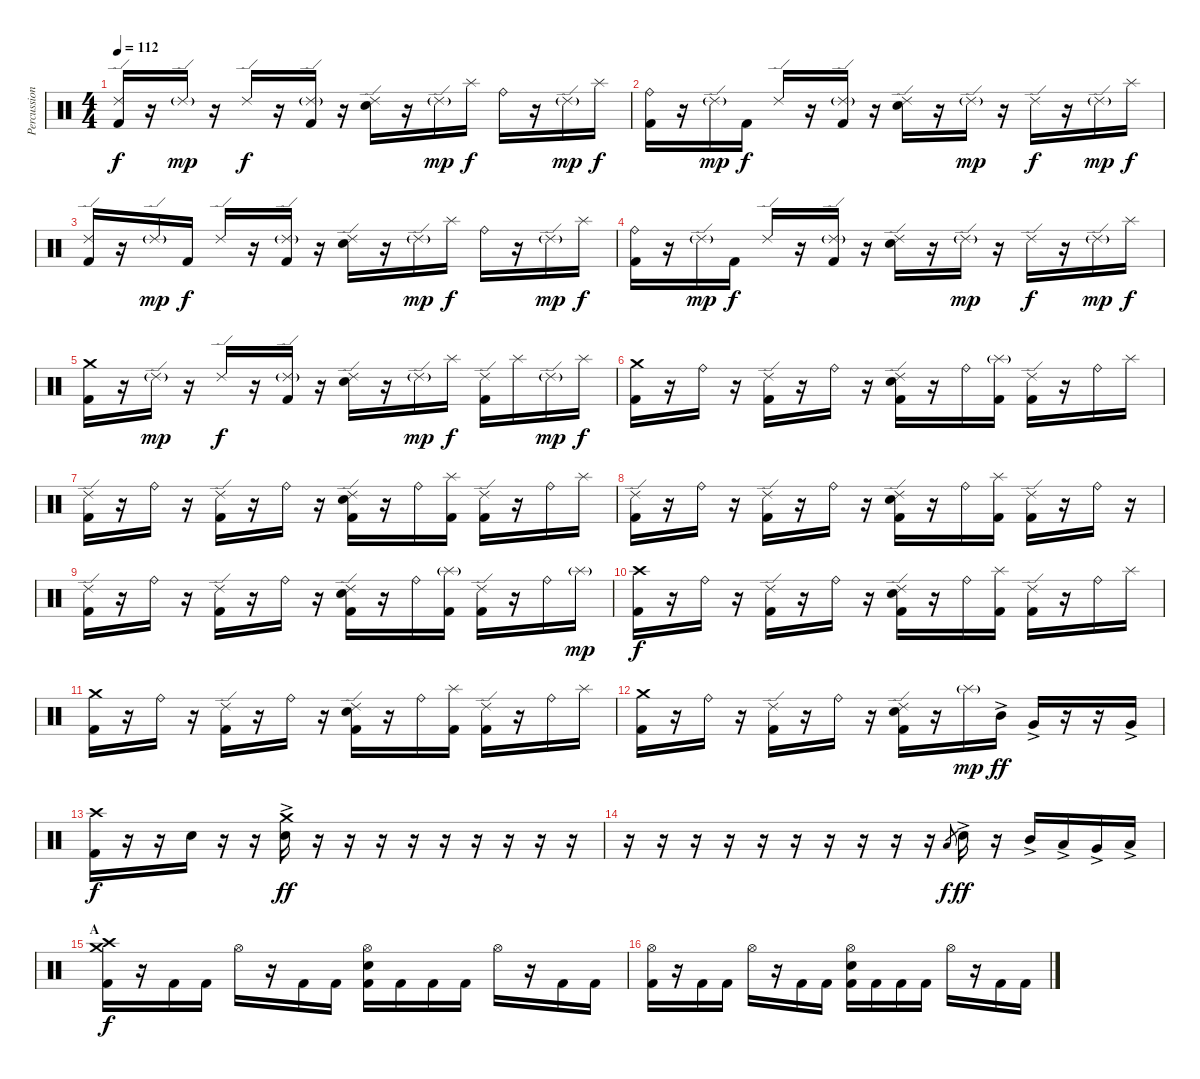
\track ("Percussion" "Percussion") {instrument percussion}
\staff {score}
\articulation defaults
\ts (4 4)
\tempo 112
\clef neutral
\ks c
("Ride (edge) 2" "Kick (hit) 2").16{dy f} r.16 "Ride (edge) 2"{g}.16{dy mp} r.16 "Ride (edge) 2".16{dy f} r.16 ("Ride (edge) 2"{g} "Kick (hit) 2").16 r.16 ("Ride (edge) 2" "Electric Snare (hit)").16 r.16 "Ride (edge) 2"{g}.16{dy mp} "Splash (hit)".16{dy f} "Ride (bell)".16 r.16 "Ride (edge) 2"{g}.16{dy mp} "Splash (hit)".16{dy f} |
("Ride (bell)" "Kick (hit) 2").16 r.16 "Ride (edge) 2"{g}.16{dy mp} "Kick (hit) 2".16{dy f} "Ride (edge) 2".16 r.16 ("Ride (edge) 2"{g} "Kick (hit) 2").16 r.16 ("Ride (edge) 2" "Electric Snare (hit)").16 r.16 "Ride (edge) 2"{g}.16{dy mp} r.16 "Ride (edge) 2".16{dy f} r.16 "Ride (edge) 2"{g}.16{dy mp} "Splash (hit)".16{dy f} |
("Ride (edge) 2" "Kick (hit) 2").16 r.16 "Ride (edge) 2"{g}.16{dy mp} "Kick (hit) 2".16{dy f} "Ride (edge) 2".16 r.16 ("Ride (edge) 2"{g} "Kick (hit) 2").16 r.16 ("Ride (edge) 2" "Electric Snare (hit)").16 r.16 "Ride (edge) 2"{g}.16{dy mp} "Splash (hit)".16{dy f} "Ride (bell)".16 r.16 "Ride (edge) 2"{g}.16{dy mp} "Splash (hit)".16{dy f} |
("Ride (bell)" "Kick (hit) 2").16 r.16 "Ride (edge) 2"{g}.16{dy mp} "Kick (hit) 2".16{dy f} "Ride (edge) 2".16 r.16 ("Ride (edge) 2"{g} "Kick (hit) 2").16 r.16 ("Ride (edge) 2" "Electric Snare (hit)").16 r.16 "Ride (edge) 2"{g}.16{dy mp} r.16 "Ride (edge) 2".16{dy f} r.16 "Ride (edge) 2"{g}.16{dy mp} "Splash (hit)".16{dy f} |
("Crash medium (hit)" "Kick (hit) 2").16 r.16 "Ride (edge) 2"{g}.16{dy mp} r.16 "Ride (edge) 2".16{dy f} r.16 ("Ride (edge) 2"{g} "Kick (hit) 2").16 r.16 ("Ride (edge) 2" "Electric Snare (hit)").16 r.16 "Ride (edge) 2"{g}.16{dy mp} "Splash (hit)".16{dy f} ("Ride (edge) 2" "Kick (hit) 2").16 "Splash (hit)".16 "Ride (edge) 2"{g}.16{dy mp} "Splash (hit)".16{dy f} |
("Crash medium (hit)" "Kick (hit) 2").16 r.16 "Ride (bell)".16 r.16 ("Ride (edge) 2" "Kick (hit) 2").16 r.16 "Ride (bell)".16 r.16 ("Ride (edge) 2" "Electric Snare (hit)" "Kick (hit) 2").16 r.16 "Ride (bell)".16 ("Splash (hit)"{g} "Kick (hit) 2").16 ("Ride (edge) 2" "Kick (hit) 2").16 r.16 "Ride (bell)".16 "Splash (hit)".16 |
("Ride (edge) 2" "Kick (hit) 2").16 r.16 "Ride (bell)".16 r.16 ("Ride (edge) 2" "Kick (hit) 2").16 r.16 "Ride (bell)".16 r.16 ("Ride (edge) 2" "Electric Snare (hit)" "Kick (hit) 2").16 r.16 "Ride (bell)".16 ("Splash (hit)" "Kick (hit) 2").16 ("Ride (edge) 2" "Kick (hit) 2").16 r.16 "Ride (bell)".16 "Splash (hit)".16 |
("Ride (edge) 2" "Kick (hit) 2").16 r.16 "Ride (bell)".16 r.16 ("Ride (edge) 2" "Kick (hit) 2").16 r.16 "Ride (bell)".16 r.16 ("Ride (edge) 2" "Electric Snare (hit)" "Kick (hit) 2").16 r.16 "Ride (bell)".16 ("Splash (hit)" "Kick (hit) 2").16 ("Ride (edge) 2" "Kick (hit) 2").16 r.16 "Ride (bell)".16 r.16 |
("Ride (edge) 2" "Kick (hit) 2").16 r.16 "Ride (bell)".16 r.16 ("Ride (edge) 2" "Kick (hit) 2").16 r.16 "Ride (bell)".16 r.16 ("Ride (edge) 2" "Electric Snare (hit)" "Kick (hit) 2").16 r.16 "Ride (bell)".16 ("Splash (hit)"{g} "Kick (hit) 2").16 ("Ride (edge) 2" "Kick (hit) 2").16 r.16 "Ride (bell)".16 "Splash (hit)"{g}.16{dy mp} |
("Crash high (hit)" "Kick (hit) 2").16{dy f} r.16 "Ride (bell)".16 r.16 ("Ride (edge) 2" "Kick (hit) 2").16 r.16 "Ride (bell)".16 r.16 ("Ride (edge) 2" "Electric Snare (hit)" "Kick (hit) 2").16 r.16 "Ride (bell)".16 ("Splash (hit)" "Kick (hit) 2").16 ("Ride (edge) 2" "Kick (hit) 2").16 r.16 "Ride (bell)".16 "Splash (hit)".16 |
("Crash medium (hit)" "Kick (hit) 2").16 r.16 "Ride (bell)".16 r.16 ("Ride (edge) 2" "Kick (hit) 2").16 r.16 "Ride (bell)".16 r.16 ("Ride (edge) 2" "Electric Snare (hit)" "Kick (hit) 2").16 r.16 "Ride (bell)".16 ("Splash (hit)" "Kick (hit) 2").16 ("Ride (edge) 2" "Kick (hit) 2").16 r.16 "Ride (bell)".16 "Splash (hit)".16 |
("Crash medium (hit)" "Kick (hit) 2").16 r.16 "Ride (bell)".16 r.16 ("Ride (edge) 2" "Kick (hit) 2").16 r.16 "Ride (bell)".16 r.16 ("Ride (edge) 2" "Electric Snare (hit)" "Kick (hit) 2").16 r.16 "Splash (hit)"{g}.16{dy mp} "Mid Tom (hit)"{ac}.16{dy ff} "Very Low Tom (hit)"{ac}.16 r.16 r.16 "Very Low Tom (hit)"{ac}.16 |
("Crash high (hit)" "Kick (hit) 2").16{dy f} r.16 r.16 "Electric Snare (hit)".16 r.16 r.16 ("Crash medium (hit)" "Electric Snare (hit)"{ac}).16{dy ff} r.16 r.16 r.16 r.16 r.16 r.16 r.16 r.16 r.16 |
r.16 r.16 r.16 r.16 r.16 r.16 r.16 r.16 r.16 r.16 "Low Tom (hit)".8{gr dy f} "Electric Snare (hit)"{ac}.16{dy ff} r.16 "Mid Tom (hit)"{ac}.16 "Low Tom (hit)"{ac}.16 "Very Low Tom (hit)"{ac}.16 "Low Floor Tom (hit)"{ac}.16 |
\section ("" "A")
("Crash medium (hit)" "Crash high (hit)" "Kick (hit) 2").16{dy f} r.16 "Kick (hit) 2".16 "Kick (hit) 2".16 "Hi-Hat (open)".16 r.16 "Kick (hit) 2".16 "Kick (hit) 2".16 ("Hi-Hat (open)" "Electric Snare (hit)" "Kick (hit) 2").16 "Kick (hit) 2".16 "Kick (hit) 2".16 "Kick (hit) 2".16 "Hi-Hat (open)".16 r.16 "Kick (hit) 2".16 "Kick (hit) 2".16 |
("Hi-Hat (open)" "Kick (hit) 2").16 r.16 "Kick (hit) 2".16 "Kick (hit) 2".16 "Hi-Hat (open)".16 r.16 "Kick (hit) 2".16 "Kick (hit) 2".16 ("Hi-Hat (open)" "Electric Snare (hit)" "Kick (hit) 2").16 "Kick (hit) 2".16 "Kick (hit) 2".16 "Kick (hit) 2".16 "Hi-Hat (open)".16 r.16 "Kick (hit) 2".16 "Kick (hit) 2".16
